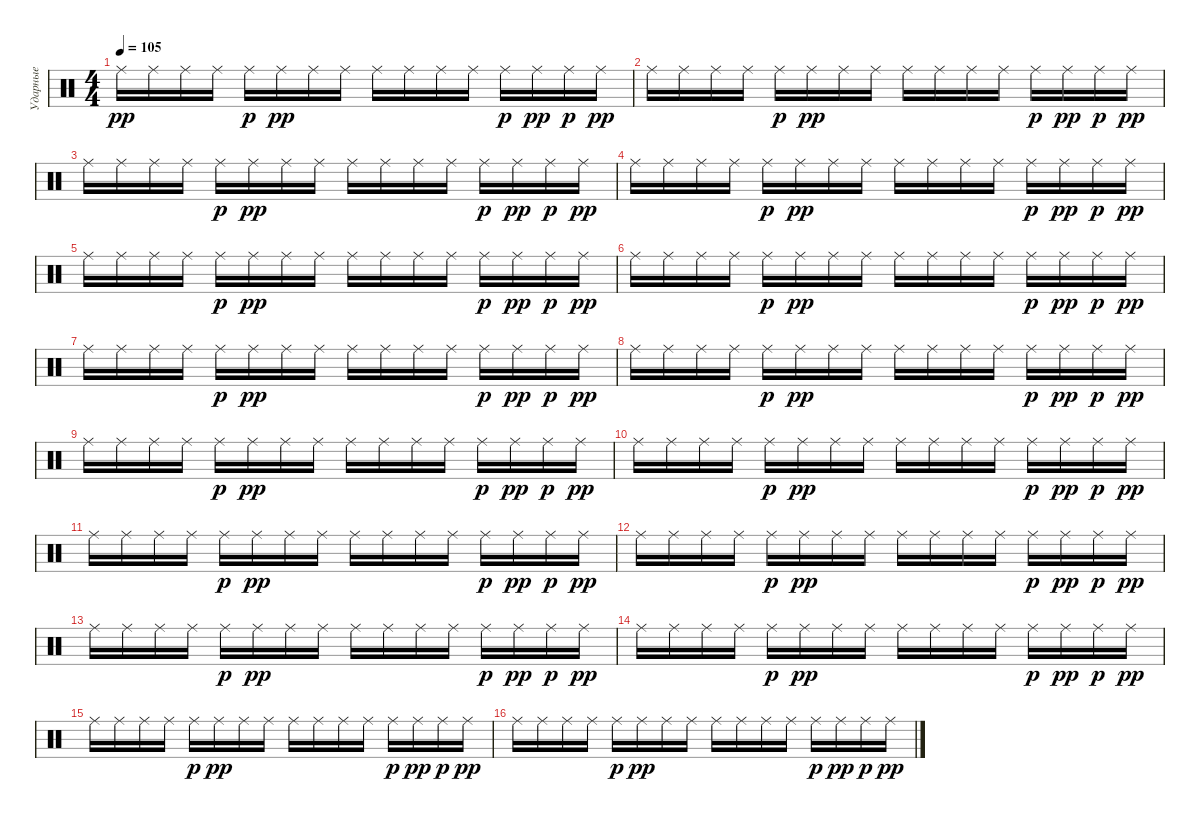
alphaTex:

\track ("Ударные" "Ударные") {instrument percussion}
\staff {score}
\articulation defaults
\ts (4 4)
\tempo 105
\clef neutral
\ks c "Ride (middle)".16{dy pp} "Ride (middle)".16 "Ride (middle)".16 "Ride (middle)".16 "Ride (middle)".16{dy p} "Ride (middle)".16{dy pp} "Ride (middle)".16 "Ride (middle)".16 "Ride (middle)".16 "Ride (middle)".16 "Ride (middle)".16 "Ride (middle)".16 "Ride (middle)".16{dy p} "Ride (middle)".16{dy pp} "Ride (middle)".16{dy p} "Ride (middle)".16{dy pp}
|
"Ride (middle)".16 "Ride (middle)".16 "Ride (middle)".16 "Ride (middle)".16 "Ride (middle)".16{dy p} "Ride (middle)".16{dy pp} "Ride (middle)".16 "Ride (middle)".16 "Ride (middle)".16 "Ride (middle)".16 "Ride (middle)".16 "Ride (middle)".16 "Ride (middle)".16{dy p} "Ride (middle)".16{dy pp} "Ride (middle)".16{dy p} "Ride (middle)".16{dy pp} |
"Ride (middle)".16 "Ride (middle)".16 "Ride (middle)".16 "Ride (middle)".16 "Ride (middle)".16{dy p} "Ride (middle)".16{dy pp} "Ride (middle)".16 "Ride (middle)".16 "Ride (middle)".16 "Ride (middle)".16 "Ride (middle)".16 "Ride (middle)".16 "Ride (middle)".16{dy p} "Ride (middle)".16{dy pp} "Ride (middle)".16{dy p} "Ride (middle)".16{dy pp} |
"Ride (middle)".16 "Ride (middle)".16 "Ride (middle)".16 "Ride (middle)".16 "Ride (middle)".16{dy p} "Ride (middle)".16{dy pp} "Ride (middle)".16 "Ride (middle)".16 "Ride (middle)".16 "Ride (middle)".16 "Ride (middle)".16 "Ride (middle)".16 "Ride (middle)".16{dy p} "Ride (middle)".16{dy pp} "Ride (middle)".16{dy p} "Ride (middle)".16{dy pp} |
"Ride (middle)".16 "Ride (middle)".16 "Ride (middle)".16 "Ride (middle)".16 "Ride (middle)".16{dy p} "Ride (middle)".16{dy pp} "Ride (middle)".16 "Ride (middle)".16 "Ride (middle)".16 "Ride (middle)".16 "Ride (middle)".16 "Ride (middle)".16 "Ride (middle)".16{dy p} "Ride (middle)".16{dy pp} "Ride (middle)".16{dy p} "Ride (middle)".16{dy pp} |
"Ride (middle)".16 "Ride (middle)".16 "Ride (middle)".16 "Ride (middle)".16 "Ride (middle)".16{dy p} "Ride (middle)".16{dy pp} "Ride (middle)".16 "Ride (middle)".16 "Ride (middle)".16 "Ride (middle)".16 "Ride (middle)".16 "Ride (middle)".16 "Ride (middle)".16{dy p} "Ride (middle)".16{dy pp} "Ride (middle)".16{dy p} "Ride (middle)".16{dy pp} |
"Ride (middle)".16 "Ride (middle)".16 "Ride (middle)".16 "Ride (middle)".16 "Ride (middle)".16{dy p} "Ride (middle)".16{dy pp} "Ride (middle)".16 "Ride (middle)".16 "Ride (middle)".16 "Ride (middle)".16 "Ride (middle)".16 "Ride (middle)".16 "Ride (middle)".16{dy p} "Ride (middle)".16{dy pp} "Ride (middle)".16{dy p} "Ride (middle)".16{dy pp} |
"Ride (middle)".16 "Ride (middle)".16 "Ride (middle)".16 "Ride (middle)".16 "Ride (middle)".16{dy p} "Ride (middle)".16{dy pp} "Ride (middle)".16 "Ride (middle)".16 "Ride (middle)".16 "Ride (middle)".16 "Ride (middle)".16 "Ride (middle)".16 "Ride (middle)".16{dy p} "Ride (middle)".16{dy pp} "Ride (middle)".16{dy p} "Ride (middle)".16{dy pp} |
"Ride (middle)".16 "Ride (middle)".16 "Ride (middle)".16 "Ride (middle)".16 "Ride (middle)".16{dy p} "Ride (middle)".16{dy pp} "Ride (middle)".16 "Ride (middle)".16 "Ride (middle)".16 "Ride (middle)".16 "Ride (middle)".16 "Ride (middle)".16 "Ride (middle)".16{dy p} "Ride (middle)".16{dy pp} "Ride (middle)".16{dy p} "Ride (middle)".16{dy pp} |
"Ride (middle)".16 "Ride (middle)".16 "Ride (middle)".16 "Ride (middle)".16 "Ride (middle)".16{dy p} "Ride (middle)".16{dy pp} "Ride (middle)".16 "Ride (middle)".16 "Ride (middle)".16 "Ride (middle)".16 "Ride (middle)".16 "Ride (middle)".16 "Ride (middle)".16{dy p} "Ride (middle)".16{dy pp} "Ride (middle)".16{dy p} "Ride (middle)".16{dy pp} |
"Ride (middle)".16 "Ride (middle)".16 "Ride (middle)".16 "Ride (middle)".16 "Ride (middle)".16{dy p} "Ride (middle)".16{dy pp} "Ride (middle)".16 "Ride (middle)".16 "Ride (middle)".16 "Ride (middle)".16 "Ride (middle)".16 "Ride (middle)".16 "Ride (middle)".16{dy p} "Ride (middle)".16{dy pp} "Ride (middle)".16{dy p} "Ride (middle)".16{dy pp} |
"Ride (middle)".16 "Ride (middle)".16 "Ride (middle)".16 "Ride (middle)".16 "Ride (middle)".16{dy p} "Ride (middle)".16{dy pp} "Ride (middle)".16 "Ride (middle)".16 "Ride (middle)".16 "Ride (middle)".16 "Ride (middle)".16 "Ride (middle)".16 "Ride (middle)".16{dy p} "Ride (middle)".16{dy pp} "Ride (middle)".16{dy p} "Ride (middle)".16{dy pp} |
"Ride (middle)".16 "Ride (middle)".16 "Ride (middle)".16 "Ride (middle)".16 "Ride (middle)".16{dy p} "Ride (middle)".16{dy pp} "Ride (middle)".16 "Ride (middle)".16 "Ride (middle)".16 "Ride (middle)".16 "Ride (middle)".16 "Ride (middle)".16 "Ride (middle)".16{dy p} "Ride (middle)".16{dy pp} "Ride (middle)".16{dy p} "Ride (middle)".16{dy pp} |
"Ride (middle)".16 "Ride (middle)".16 "Ride (middle)".16 "Ride (middle)".16 "Ride (middle)".16{dy p} "Ride (middle)".16{dy pp} "Ride (middle)".16 "Ride (middle)".16 "Ride (middle)".16 "Ride (middle)".16 "Ride (middle)".16 "Ride (middle)".16 "Ride (middle)".16{dy p} "Ride (middle)".16{dy pp} "Ride (middle)".16{dy p} "Ride (middle)".16{dy pp} |
"Ride (middle)".16 "Ride (middle)".16 "Ride (middle)".16 "Ride (middle)".16 "Ride (middle)".16{dy p} "Ride (middle)".16{dy pp} "Ride (middle)".16 "Ride (middle)".16 "Ride (middle)".16 "Ride (middle)".16 "Ride (middle)".16 "Ride (middle)".16 "Ride (middle)".16{dy p} "Ride (middle)".16{dy pp} "Ride (middle)".16{dy p} "Ride (middle)".16{dy pp} |
"Ride (middle)".16 "Ride (middle)".16 "Ride (middle)".16 "Ride (middle)".16 "Ride (middle)".16{dy p} "Ride (middle)".16{dy pp} "Ride (middle)".16 "Ride (middle)".16 "Ride (middle)".16 "Ride (middle)".16 "Ride (middle)".16 "Ride (middle)".16 "Ride (middle)".16{dy p} "Ride (middle)".16{dy pp} "Ride (middle)".16{dy p} "Ride (middle)".16{dy pp}
